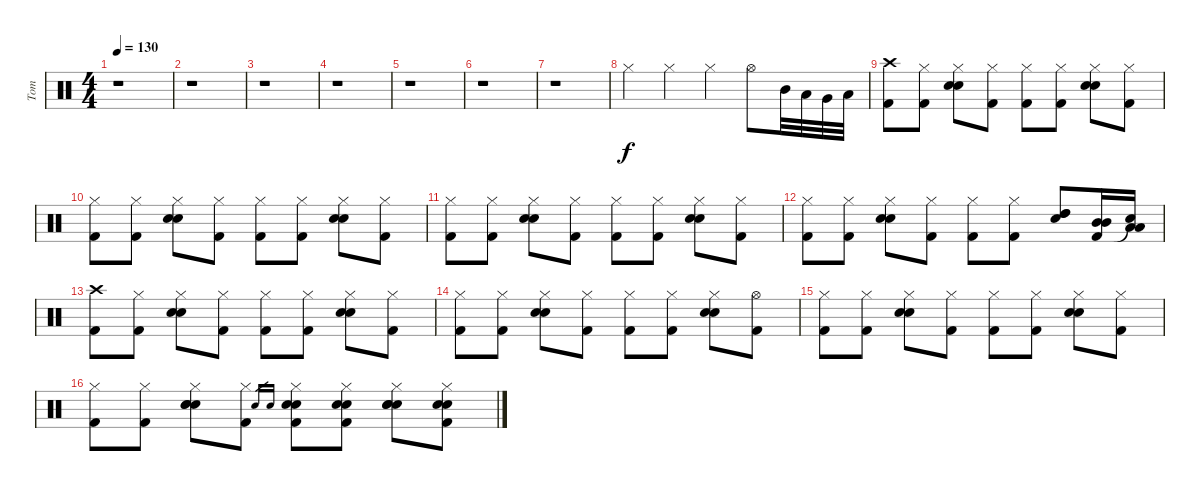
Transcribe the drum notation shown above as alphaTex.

\track ("Tom" "Tom") {instrument percussion}
\staff {score}
\articulation defaults
\ts (4 4)
\tempo 130
\clef neutral
\ks c
r.1{dy f} |
r.1 |
r.1 |
r.1 |
r.1 |
r.1 |
r.1 |
"Hi-Hat (closed)".4 "Hi-Hat (closed)".4 "Hi-Hat (closed)".4 "Hi-Hat (open)".8 "Mid Tom (hit)".32 "Low Tom (hit)".32 "Very Low Tom (hit)".32 "Low Floor Tom (hit)".32 |
("Crash high (hit)" "Kick (hit) 2").8 ("Hi-Hat (closed)" "Kick (hit) 2").8 ("Hi-Hat (closed)" "Electric Snare (hit)" "Snare (hit) 2").8 ("Hi-Hat (closed)" "Kick (hit) 2").8 ("Hi-Hat (closed)" "Kick (hit) 2").8 ("Hi-Hat (closed)" "Kick (hit) 2").8 ("Hi-Hat (closed)" "Electric Snare (hit)" "Snare (hit) 2").8 ("Hi-Hat (closed)" "Kick (hit) 2").8 |
("Hi-Hat (closed)" "Kick (hit) 2").8 ("Hi-Hat (closed)" "Kick (hit) 2").8 ("Hi-Hat (closed)" "Electric Snare (hit)" "Snare (hit) 2").8 ("Hi-Hat (closed)" "Kick (hit) 2").8 ("Hi-Hat (closed)" "Kick (hit) 2").8 ("Hi-Hat (closed)" "Kick (hit) 2").8 ("Hi-Hat (closed)" "Electric Snare (hit)" "Snare (hit) 2").8 ("Hi-Hat (closed)" "Kick (hit) 2").8 |
("Hi-Hat (closed)" "Kick (hit) 2").8 ("Hi-Hat (closed)" "Kick (hit) 2").8 ("Hi-Hat (closed)" "Electric Snare (hit)" "Snare (hit) 2").8 ("Hi-Hat (closed)" "Kick (hit) 2").8 ("Hi-Hat (closed)" "Kick (hit) 2").8 ("Hi-Hat (closed)" "Kick (hit) 2").8 ("Hi-Hat (closed)" "Electric Snare (hit)" "Snare (hit) 2").8 ("Hi-Hat (closed)" "Kick (hit) 2").8 |
("Hi-Hat (closed)" "Kick (hit) 2").8 ("Hi-Hat (closed)" "Kick (hit) 2").8 ("Hi-Hat (closed)" "Electric Snare (hit)" "Snare (hit) 2").8 ("Hi-Hat (closed)" "Kick (hit) 2").8 ("Hi-Hat (closed)" "Kick (hit) 2").8 ("Hi-Hat (closed)" "Kick (hit) 2").8 ("High Tom (hit)" "High Tom (hit)" "Snare (hit) 2").8 ("Mid Tom (hit)" "Mid Tom (hit)" "Kick (hit) 2").16 ("Low Tom (hit)" "Low Tom (hit)" "Snare (hit)"{t}).16 |
("Crash high (hit)" "Kick (hit) 2").8 ("Hi-Hat (closed)" "Kick (hit) 2").8 ("Hi-Hat (closed)" "Electric Snare (hit)" "Snare (hit) 2").8 ("Hi-Hat (closed)" "Kick (hit) 2").8 ("Hi-Hat (closed)" "Kick (hit) 2").8 ("Hi-Hat (closed)" "Kick (hit) 2").8 ("Hi-Hat (closed)" "Electric Snare (hit)" "Snare (hit) 2").8 ("Hi-Hat (closed)" "Kick (hit) 2").8 |
("Hi-Hat (closed)" "Kick (hit) 2").8 ("Hi-Hat (closed)" "Kick (hit) 2").8 ("Hi-Hat (closed)" "Electric Snare (hit)" "Snare (hit) 2").8 ("Hi-Hat (closed)" "Kick (hit) 2").8 ("Hi-Hat (closed)" "Kick (hit) 2").8 ("Hi-Hat (closed)" "Kick (hit) 2").8 ("Hi-Hat (closed)" "Electric Snare (hit)" "Snare (hit) 2").8 ("Hi-Hat (open)" "Kick (hit) 2").8 |
("Hi-Hat (closed)" "Kick (hit) 2").8 ("Hi-Hat (closed)" "Kick (hit) 2").8 ("Hi-Hat (closed)" "Electric Snare (hit)" "Snare (hit) 2").8 ("Hi-Hat (closed)" "Kick (hit) 2").8 ("Hi-Hat (closed)" "Kick (hit) 2").8 ("Hi-Hat (closed)" "Kick (hit) 2").8 ("Hi-Hat (closed)" "Electric Snare (hit)" "Snare (hit) 2").8 ("Hi-Hat (closed)" "Kick (hit) 2").8 |
("Hi-Hat (closed)" "Kick (hit) 2").8 ("Hi-Hat (closed)" "Kick (hit) 2").8 ("Hi-Hat (closed)" "Electric Snare (hit)" "Electric Snare (hit)" "Snare (hit) 2").8 ("Hi-Hat (closed)" "Kick (hit) 2").8 "Electric Snare (hit)".16{gr} "Electric Snare (hit)".16{gr} ("Hi-Hat (closed)" "Electric Snare (hit)" "Electric Snare (hit)" "Kick (hit) 2").8 ("Hi-Hat (closed)" "Electric Snare (hit)" "Electric Snare (hit)" "Kick (hit) 2").8 ("Hi-Hat (closed)" "Electric Snare (hit)" "Electric Snare (hit)" "Snare (hit) 2").8 ("Hi-Hat (closed)" "Electric Snare (hit)" "Electric Snare (hit)" "Kick (hit) 2").8
